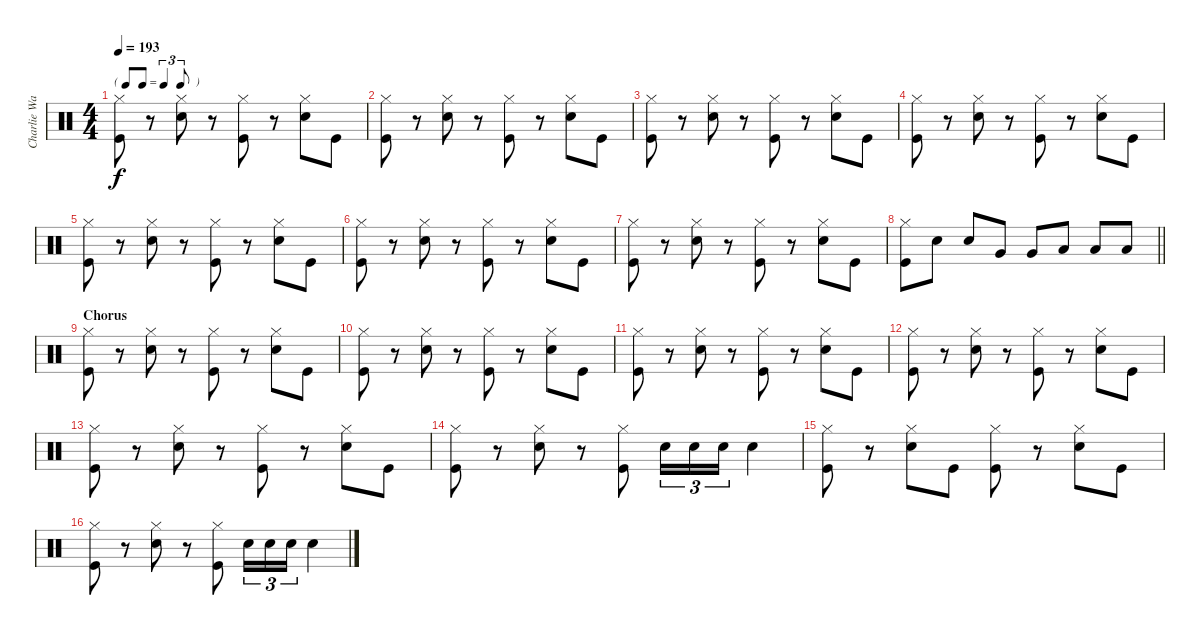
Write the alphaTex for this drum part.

\track ("Charlie Watts" "Charlie Wa") {instrument percussion}
\staff {score}
\articulation defaults
\ts (4 4)
\tf triplet8th
\tempo 193
\clef neutral
\ks c
("Hi-Hat (closed)" "Kick (hit)").8{dy f} r.8 ("Hi-Hat (closed)" "Snare (hit) 2").8 r.8 ("Hi-Hat (closed)" "Kick (hit)").8 r.8 ("Hi-Hat (closed)" "Snare (hit) 2").8 "Kick (hit)".8 |
("Hi-Hat (closed)" "Kick (hit)").8 r.8 ("Hi-Hat (closed)" "Snare (hit) 2").8 r.8 ("Hi-Hat (closed)" "Kick (hit)").8 r.8 ("Hi-Hat (closed)" "Snare (hit) 2").8 "Kick (hit)".8 |
("Hi-Hat (closed)" "Kick (hit)").8 r.8 ("Hi-Hat (closed)" "Snare (hit) 2").8 r.8 ("Hi-Hat (closed)" "Kick (hit)").8 r.8 ("Hi-Hat (closed)" "Snare (hit) 2").8 "Kick (hit)".8 |
("Hi-Hat (closed)" "Kick (hit)").8 r.8 ("Hi-Hat (closed)" "Snare (hit) 2").8 r.8 ("Hi-Hat (closed)" "Kick (hit)").8 r.8 ("Hi-Hat (closed)" "Snare (hit) 2").8 "Kick (hit)".8 |
("Hi-Hat (closed)" "Kick (hit)").8 r.8 ("Hi-Hat (closed)" "Snare (hit) 2").8 r.8 ("Hi-Hat (closed)" "Kick (hit)").8 r.8 ("Hi-Hat (closed)" "Snare (hit) 2").8 "Kick (hit)".8 |
("Hi-Hat (closed)" "Kick (hit)").8 r.8 ("Hi-Hat (closed)" "Snare (hit) 2").8 r.8 ("Hi-Hat (closed)" "Kick (hit)").8 r.8 ("Hi-Hat (closed)" "Snare (hit) 2").8 "Kick (hit)".8 |
("Hi-Hat (closed)" "Kick (hit)").8 r.8 ("Hi-Hat (closed)" "Snare (hit) 2").8 r.8 ("Hi-Hat (closed)" "Kick (hit)").8 r.8 ("Hi-Hat (closed)" "Snare (hit) 2").8 "Kick (hit)".8 |
\barLineRight lightlight
("Hi-Hat (closed)" "Kick (hit)").8 "Snare (hit) 2".8 "Snare (hit) 2".8 "Very Low Tom (hit)".8 "Very Low Tom (hit)".8 "Low Floor Tom (hit)".8 "Low Floor Tom (hit)".8 "Low Floor Tom (hit)".8 |
\section ("" "Chorus")
("Hi-Hat (closed)" "Kick (hit)").8 r.8 ("Hi-Hat (closed)" "Snare (hit) 2").8 r.8 ("Hi-Hat (closed)" "Kick (hit)").8 r.8 ("Hi-Hat (closed)" "Snare (hit) 2").8 "Kick (hit)".8 |
("Hi-Hat (closed)" "Kick (hit)").8 r.8 ("Hi-Hat (closed)" "Snare (hit) 2").8 r.8 ("Hi-Hat (closed)" "Kick (hit)").8 r.8 ("Hi-Hat (closed)" "Snare (hit) 2").8 "Kick (hit)".8 |
("Hi-Hat (closed)" "Kick (hit)").8 r.8 ("Hi-Hat (closed)" "Snare (hit) 2").8 r.8 ("Hi-Hat (closed)" "Kick (hit)").8 r.8 ("Hi-Hat (closed)" "Snare (hit) 2").8 "Kick (hit)".8 |
("Hi-Hat (closed)" "Kick (hit)").8 r.8 ("Hi-Hat (closed)" "Snare (hit) 2").8 r.8 ("Hi-Hat (closed)" "Kick (hit)").8 r.8 ("Hi-Hat (closed)" "Snare (hit) 2").8 "Kick (hit)".8 |
("Hi-Hat (closed)" "Kick (hit)").8 r.8 ("Hi-Hat (closed)" "Snare (hit) 2").8 r.8 ("Hi-Hat (closed)" "Kick (hit)").8 r.8 ("Hi-Hat (closed)" "Snare (hit) 2").8 "Kick (hit)".8 |
("Hi-Hat (closed)" "Kick (hit)").8 r.8 ("Hi-Hat (closed)" "Snare (hit) 2").8 r.8 ("Hi-Hat (closed)" "Kick (hit)").8 "Snare (hit) 2".16{tu (3 2)} "Snare (hit) 2".16{tu (3 2)} "Snare (hit) 2".16{tu (3 2)} "Snare (hit) 2".4 |
("Hi-Hat (closed)" "Kick (hit)").8 r.8 ("Hi-Hat (closed)" "Snare (hit) 2").8 "Kick (hit)".8 ("Hi-Hat (closed)" "Kick (hit)").8 r.8 ("Hi-Hat (closed)" "Snare (hit) 2").8 "Kick (hit)".8 |
("Hi-Hat (closed)" "Kick (hit)").8 r.8 ("Hi-Hat (closed)" "Snare (hit) 2").8 r.8 ("Hi-Hat (closed)" "Kick (hit)").8 "Snare (hit) 2".16{tu (3 2)} "Snare (hit) 2".16{tu (3 2)} "Snare (hit) 2".16{tu (3 2)} "Snare (hit) 2".4
